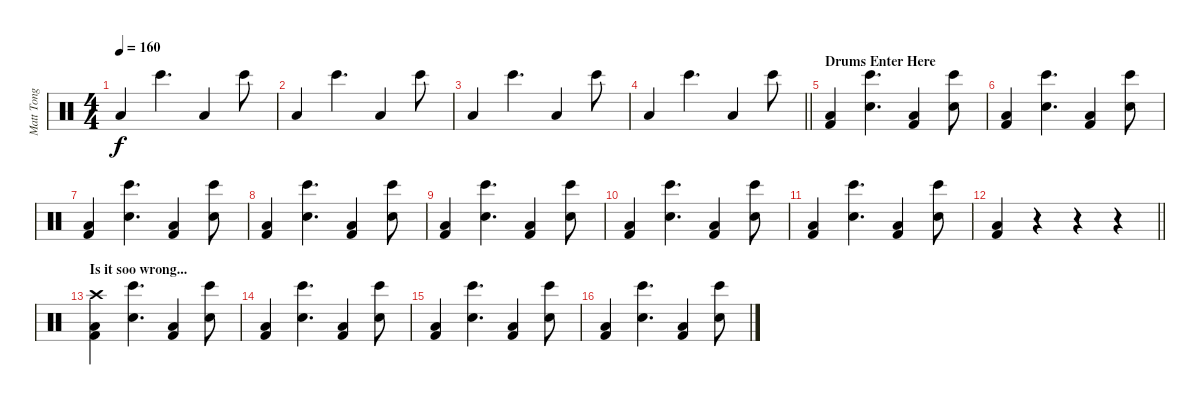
\track ("Matt Tong - Drums" "Matt Tong ") {instrument percussion}
\staff {score}
\articulation defaults
\ts (4 4)
\tempo 160
\clef neutral
\ks c "Low Floor Tom (hit)".4{dy f} "Bongo High (hit)".4{d} "Low Floor Tom (hit)".4 "Bongo High (hit)".8
|
"Low Floor Tom (hit)".4 "Bongo High (hit)".4{d} "Low Floor Tom (hit)".4 "Bongo High (hit)".8 |
"Low Floor Tom (hit)".4 "Bongo High (hit)".4{d} "Low Floor Tom (hit)".4 "Bongo High (hit)".8 |
\barLineRight lightlight "Low Floor Tom (hit)".4 "Bongo High (hit)".4{d} "Low Floor Tom (hit)".4 "Bongo High (hit)".8
|
\section ("" "Drums Enter Here")
("Kick (hit) 2" "Low Floor Tom (hit)").4 ("Bongo High (hit)" "Snare (hit) 2").4{d} ("Kick (hit) 2" "Low Floor Tom (hit)").4 ("Bongo High (hit)" "Snare (hit) 2").8 |
("Kick (hit) 2" "Low Floor Tom (hit)").4 ("Bongo High (hit)" "Snare (hit) 2").4{d} ("Kick (hit) 2" "Low Floor Tom (hit)").4 ("Bongo High (hit)" "Snare (hit) 2").8 |
("Kick (hit) 2" "Low Floor Tom (hit)").4 ("Bongo High (hit)" "Snare (hit) 2").4{d} ("Kick (hit) 2" "Low Floor Tom (hit)").4 ("Bongo High (hit)" "Snare (hit) 2").8 |
("Kick (hit) 2" "Low Floor Tom (hit)").4 ("Bongo High (hit)" "Snare (hit) 2").4{d} ("Kick (hit) 2" "Low Floor Tom (hit)").4 ("Bongo High (hit)" "Snare (hit) 2").8 |
("Kick (hit) 2" "Low Floor Tom (hit)").4 ("Bongo High (hit)" "Snare (hit) 2").4{d} ("Kick (hit) 2" "Low Floor Tom (hit)").4 ("Bongo High (hit)" "Snare (hit) 2").8 |
("Kick (hit) 2" "Low Floor Tom (hit)").4 ("Bongo High (hit)" "Snare (hit) 2").4{d} ("Kick (hit) 2" "Low Floor Tom (hit)").4 ("Bongo High (hit)" "Snare (hit) 2").8 |
("Kick (hit) 2" "Low Floor Tom (hit)").4 ("Bongo High (hit)" "Snare (hit) 2").4{d} ("Kick (hit) 2" "Low Floor Tom (hit)").4 ("Bongo High (hit)" "Snare (hit) 2").8 |
\barLineRight lightlight
("Kick (hit) 2" "Low Floor Tom (hit)").4 r.4 r.4 r.4 |
\section ("" "Is it soo wrong...")
("Kick (hit) 2" "Low Floor Tom (hit)" "Crash high (hit)").4 ("Bongo High (hit)" "Snare (hit) 2").4{d} ("Kick (hit) 2" "Low Floor Tom (hit)").4 ("Bongo High (hit)" "Snare (hit) 2").8 |
("Kick (hit) 2" "Low Floor Tom (hit)").4 ("Bongo High (hit)" "Snare (hit) 2").4{d} ("Kick (hit) 2" "Low Floor Tom (hit)").4 ("Bongo High (hit)" "Snare (hit) 2").8 |
("Kick (hit) 2" "Low Floor Tom (hit)").4 ("Bongo High (hit)" "Snare (hit) 2").4{d} ("Kick (hit) 2" "Low Floor Tom (hit)").4 ("Bongo High (hit)" "Snare (hit) 2").8 |
("Kick (hit) 2" "Low Floor Tom (hit)").4 ("Bongo High (hit)" "Snare (hit) 2").4{d} ("Kick (hit) 2" "Low Floor Tom (hit)").4 ("Bongo High (hit)" "Snare (hit) 2").8
